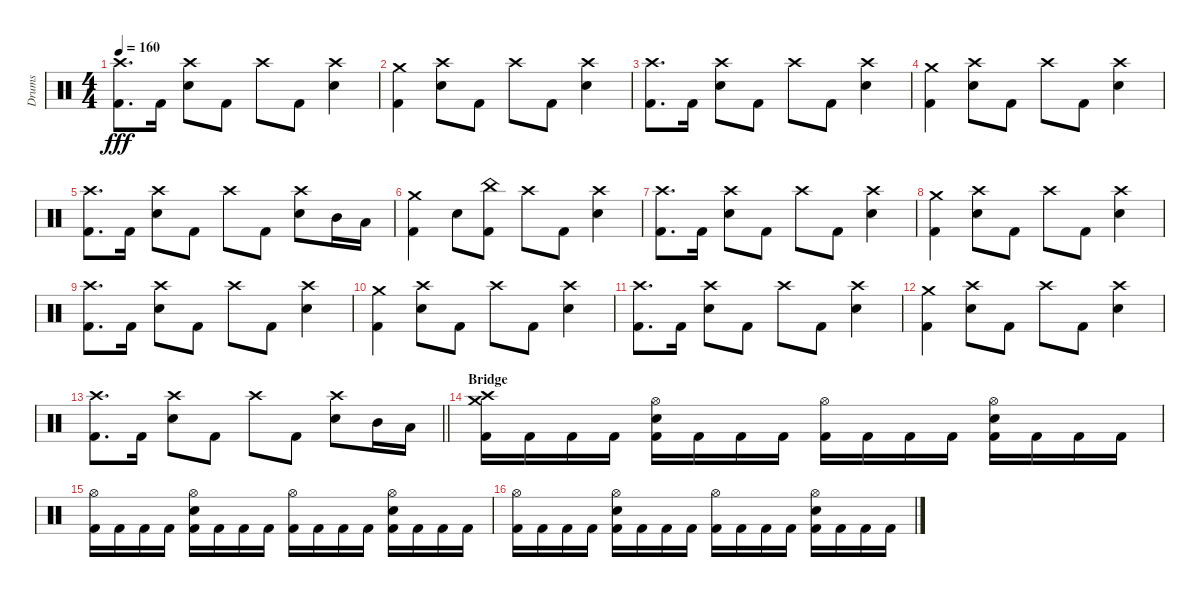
\track ("Drums" "Drums") {instrument percussion}
\staff {score}
\articulation defaults
\ts (4 4)
\tempo 160
\clef neutral
\ks c
("Crash high (hit)" "Kick (hit) 2").8{d dy fff} "Kick (hit) 2".16 ("Crash high (hit)" "Snare (hit) 2").8 "Kick (hit) 2".8 "Crash high (hit)".8 "Kick (hit) 2".8 ("Crash high (hit)" "Snare (hit) 2").4 |
("Crash medium (hit)" "Kick (hit) 2").4 ("Crash high (hit)" "Snare (hit) 2").8 "Kick (hit) 2".8 "Crash high (hit)".8 "Kick (hit) 2".8 ("Crash high (hit)" "Snare (hit) 2").4 |
("Crash high (hit)" "Kick (hit) 2").8{d} "Kick (hit) 2".16 ("Crash high (hit)" "Snare (hit) 2").8 "Kick (hit) 2".8 "Crash high (hit)".8 "Kick (hit) 2".8 ("Crash high (hit)" "Snare (hit) 2").4 |
("Crash medium (hit)" "Kick (hit) 2").4 ("Crash high (hit)" "Snare (hit) 2").8 "Kick (hit) 2".8 "Crash high (hit)".8 "Kick (hit) 2".8 ("Crash high (hit)" "Snare (hit) 2").4 |
("Crash high (hit)" "Kick (hit) 2").8{d} "Kick (hit) 2".16 ("Crash high (hit)" "Snare (hit) 2").8 "Kick (hit) 2".8 "Crash high (hit)".8 "Kick (hit) 2".8 ("Crash high (hit)" "Snare (hit) 2").8 "Mid Tom (hit)".16 "Low Tom (hit)".16 |
("Crash medium (hit)" "Kick (hit) 2").4 "Snare (hit) 2".8 ("China (hit)" "Kick (hit) 2").8 "Crash high (hit)".8 "Kick (hit) 2".8 ("Crash high (hit)" "Snare (hit) 2").4 |
("Crash high (hit)" "Kick (hit) 2").8{d} "Kick (hit) 2".16 ("Crash high (hit)" "Snare (hit) 2").8 "Kick (hit) 2".8 "Crash high (hit)".8 "Kick (hit) 2".8 ("Crash high (hit)" "Snare (hit) 2").4 |
("Crash medium (hit)" "Kick (hit) 2").4 ("Crash high (hit)" "Snare (hit) 2").8 "Kick (hit) 2".8 "Crash high (hit)".8 "Kick (hit) 2".8 ("Crash high (hit)" "Snare (hit) 2").4 |
("Crash high (hit)" "Kick (hit) 2").8{d} "Kick (hit) 2".16 ("Crash high (hit)" "Snare (hit) 2").8 "Kick (hit) 2".8 "Crash high (hit)".8 "Kick (hit) 2".8 ("Crash high (hit)" "Snare (hit) 2").4 |
("Crash medium (hit)" "Kick (hit) 2").4 ("Crash high (hit)" "Snare (hit) 2").8 "Kick (hit) 2".8 "Crash high (hit)".8 "Kick (hit) 2".8 ("Crash high (hit)" "Snare (hit) 2").4 |
("Crash high (hit)" "Kick (hit) 2").8{d} "Kick (hit) 2".16 ("Crash high (hit)" "Snare (hit) 2").8 "Kick (hit) 2".8 "Crash high (hit)".8 "Kick (hit) 2".8 ("Crash high (hit)" "Snare (hit) 2").4 |
("Crash medium (hit)" "Kick (hit) 2").4 ("Crash high (hit)" "Snare (hit) 2").8 "Kick (hit) 2".8 "Crash high (hit)".8 "Kick (hit) 2".8 ("Crash high (hit)" "Snare (hit) 2").4 |
\barLineRight lightlight
("Crash high (hit)" "Kick (hit) 2").8{d} "Kick (hit) 2".16 ("Crash high (hit)" "Snare (hit) 2").8 "Kick (hit) 2".8 "Crash high (hit)".8 "Kick (hit) 2".8 ("Crash high (hit)" "Snare (hit) 2").8 "Mid Tom (hit)".16 "Low Tom (hit)".16 |
\section ("" "Bridge")
("Crash high (hit)" "Crash medium (hit)" "Kick (hit) 2").16 "Kick (hit) 2".16 "Kick (hit) 2".16 "Kick (hit) 2".16 ("Snare (hit) 2" "Hi-Hat (open)" "Kick (hit) 2").16 "Kick (hit) 2".16 "Kick (hit) 2".16 "Kick (hit) 2".16 ("Hi-Hat (open)" "Kick (hit) 2").16 "Kick (hit) 2".16 "Kick (hit) 2".16 "Kick (hit) 2".16 ("Snare (hit) 2" "Hi-Hat (open)" "Kick (hit) 2").16 "Kick (hit) 2".16 "Kick (hit) 2".16 "Kick (hit) 2".16 |
("Hi-Hat (open)" "Kick (hit) 2").16 "Kick (hit) 2".16 "Kick (hit) 2".16 "Kick (hit) 2".16 ("Snare (hit) 2" "Hi-Hat (open)" "Kick (hit) 2").16 "Kick (hit) 2".16 "Kick (hit) 2".16 "Kick (hit) 2".16 ("Hi-Hat (open)" "Kick (hit) 2").16 "Kick (hit) 2".16 "Kick (hit) 2".16 "Kick (hit) 2".16 ("Snare (hit) 2" "Hi-Hat (open)" "Kick (hit) 2").16 "Kick (hit) 2".16 "Kick (hit) 2".16 "Kick (hit) 2".16 |
("Hi-Hat (open)" "Kick (hit) 2").16 "Kick (hit) 2".16 "Kick (hit) 2".16 "Kick (hit) 2".16 ("Snare (hit) 2" "Hi-Hat (open)" "Kick (hit) 2").16 "Kick (hit) 2".16 "Kick (hit) 2".16 "Kick (hit) 2".16 ("Hi-Hat (open)" "Kick (hit) 2").16 "Kick (hit) 2".16 "Kick (hit) 2".16 "Kick (hit) 2".16 ("Snare (hit) 2" "Hi-Hat (open)" "Kick (hit) 2").16 "Kick (hit) 2".16 "Kick (hit) 2".16 "Kick (hit) 2".16
